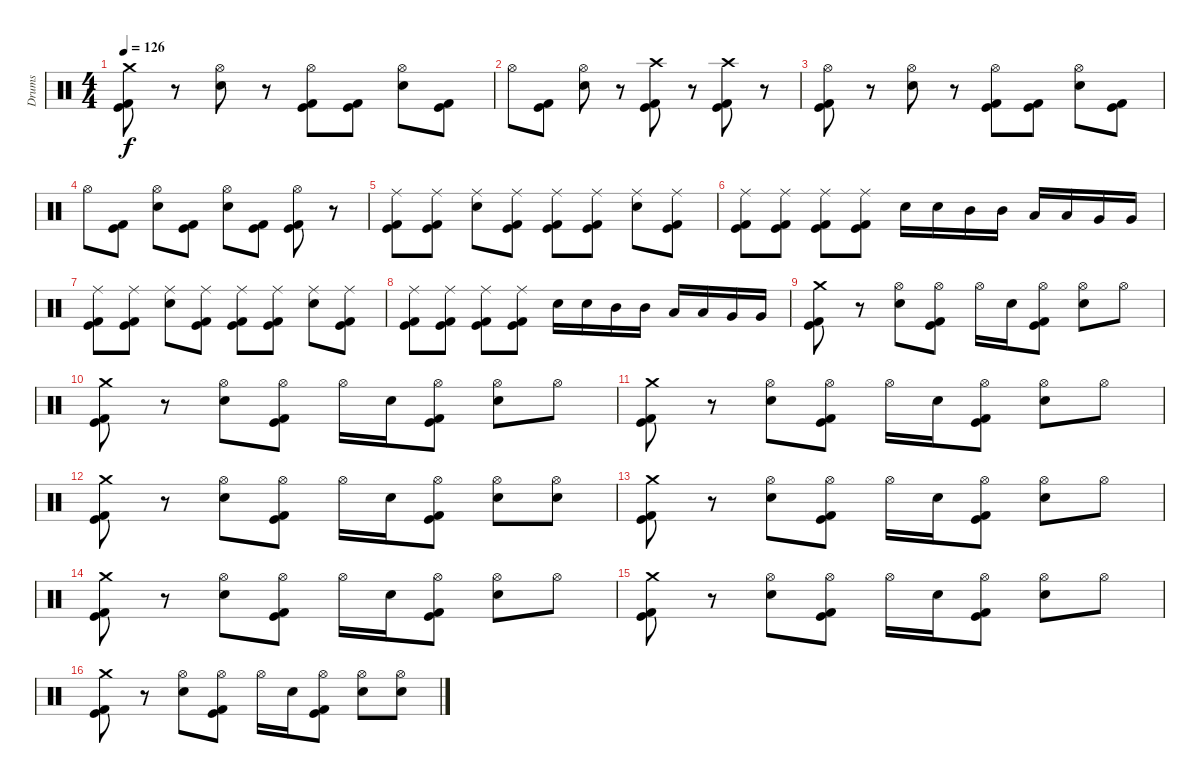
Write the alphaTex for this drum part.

\track ("Drums" "Drums") {instrument percussion}
\staff {score}
\articulation defaults
\ts (4 4)
\tempo 126
\clef neutral
\ks c
("Crash medium (hit)" "Kick (hit) 2" "Kick (hit)").8{dy f} r.8 ("Hi-Hat (open)" "Snare (hit) 2").8 r.8 ("Hi-Hat (open)" "Kick (hit) 2" "Kick (hit)").8 ("Kick (hit) 2" "Kick (hit)").8 ("Hi-Hat (open)" "Snare (hit) 2").8 ("Kick (hit) 2" "Kick (hit)").8 |
"Hi-Hat (open)".8 ("Kick (hit) 2" "Kick (hit)").8 ("Hi-Hat (open)" "Snare (hit) 2").8 r.8 ("Crash high (hit)" "Kick (hit) 2" "Kick (hit)").8 r.8 ("Crash high (hit)" "Kick (hit) 2" "Kick (hit)").8 r.8 |
("Hi-Hat (open)" "Kick (hit) 2" "Kick (hit)").8 r.8 ("Hi-Hat (open)" "Snare (hit) 2").8 r.8 ("Hi-Hat (open)" "Kick (hit) 2" "Kick (hit)").8 ("Kick (hit) 2" "Kick (hit)").8 ("Hi-Hat (open)" "Snare (hit) 2").8 ("Kick (hit) 2" "Kick (hit)").8 |
"Hi-Hat (open)".8 ("Kick (hit) 2" "Kick (hit)").8 ("Hi-Hat (open)" "Snare (hit) 2").8 ("Kick (hit) 2" "Kick (hit)").8 ("Hi-Hat (open)" "Snare (hit) 2").8 ("Kick (hit) 2" "Kick (hit)").8 ("Hi-Hat (open)" "Kick (hit) 2" "Kick (hit)").8 r.8 |
("Ride (middle)" "Kick (hit) 2" "Kick (hit)").8 ("Ride (middle)" "Kick (hit) 2" "Kick (hit)").8 ("Ride (middle)" "Snare (hit) 2").8 ("Ride (middle)" "Kick (hit) 2" "Kick (hit)").8 ("Ride (middle)" "Kick (hit) 2" "Kick (hit)").8 ("Ride (middle)" "Kick (hit) 2" "Kick (hit)").8 ("Ride (middle)" "Snare (hit) 2").8 ("Ride (middle)" "Kick (hit) 2" "Kick (hit)").8 |
("Ride (middle)" "Kick (hit) 2" "Kick (hit)").8 ("Ride (middle)" "Kick (hit) 2" "Kick (hit)").8 ("Ride (middle)" "Kick (hit) 2" "Kick (hit)").8 ("Ride (middle)" "Kick (hit) 2" "Kick (hit)").8 "Snare (hit) 2".16 "Snare (hit) 2".16 "Mid Tom (hit)".16 "Mid Tom (hit)".16 "Low Tom (hit)".16 "Low Tom (hit)".16 "Very Low Tom (hit)".16 "Very Low Tom (hit)".16 |
("Ride (middle)" "Kick (hit) 2" "Kick (hit)").8 ("Ride (middle)" "Kick (hit) 2" "Kick (hit)").8 ("Ride (middle)" "Snare (hit) 2").8 ("Ride (middle)" "Kick (hit) 2" "Kick (hit)").8 ("Ride (middle)" "Kick (hit) 2" "Kick (hit)").8 ("Ride (middle)" "Kick (hit) 2" "Kick (hit)").8 ("Ride (middle)" "Snare (hit) 2").8 ("Ride (middle)" "Kick (hit) 2" "Kick (hit)").8 |
("Ride (middle)" "Kick (hit) 2" "Kick (hit)").8 ("Ride (middle)" "Kick (hit) 2" "Kick (hit)").8 ("Ride (middle)" "Kick (hit) 2" "Kick (hit)").8 ("Ride (middle)" "Kick (hit) 2" "Kick (hit)").8 "Snare (hit) 2".16 "Snare (hit) 2".16 "Mid Tom (hit)".16 "Mid Tom (hit)".16 "Low Tom (hit)".16 "Low Tom (hit)".16 "Very Low Tom (hit)".16 "Very Low Tom (hit)".16 |
("Crash medium (hit)" "Kick (hit) 2" "Kick (hit)").8 r.8 ("Hi-Hat (open)" "Snare (hit) 2").8 ("Hi-Hat (open)" "Kick (hit) 2" "Kick (hit)").8 "Hi-Hat (open)".16 "Snare (hit) 2".16 ("Hi-Hat (open)" "Kick (hit) 2" "Kick (hit)").8 ("Hi-Hat (open)" "Snare (hit) 2").8 "Hi-Hat (open)".8 |
("Crash medium (hit)" "Kick (hit) 2" "Kick (hit)").8 r.8 ("Hi-Hat (open)" "Snare (hit) 2").8 ("Hi-Hat (open)" "Kick (hit) 2" "Kick (hit)").8 "Hi-Hat (open)".16 "Snare (hit) 2".16 ("Hi-Hat (open)" "Kick (hit) 2" "Kick (hit)").8 ("Hi-Hat (open)" "Snare (hit) 2").8 "Hi-Hat (open)".8 |
("Crash medium (hit)" "Kick (hit) 2" "Kick (hit)").8 r.8 ("Hi-Hat (open)" "Snare (hit) 2").8 ("Hi-Hat (open)" "Kick (hit) 2" "Kick (hit)").8 "Hi-Hat (open)".16 "Snare (hit) 2".16 ("Hi-Hat (open)" "Kick (hit) 2" "Kick (hit)").8 ("Hi-Hat (open)" "Snare (hit) 2").8 "Hi-Hat (open)".8 |
("Crash medium (hit)" "Kick (hit) 2" "Kick (hit)").8 r.8 ("Hi-Hat (open)" "Snare (hit) 2").8 ("Hi-Hat (open)" "Kick (hit) 2" "Kick (hit)").8 "Hi-Hat (open)".16 "Snare (hit) 2".16 ("Hi-Hat (open)" "Kick (hit) 2" "Kick (hit)").8 ("Hi-Hat (open)" "Snare (hit) 2").8 ("Hi-Hat (open)" "Snare (hit) 2").8 |
("Crash medium (hit)" "Kick (hit) 2" "Kick (hit)").8 r.8 ("Hi-Hat (open)" "Snare (hit) 2").8 ("Hi-Hat (open)" "Kick (hit) 2" "Kick (hit)").8 "Hi-Hat (open)".16 "Snare (hit) 2".16 ("Hi-Hat (open)" "Kick (hit) 2" "Kick (hit)").8 ("Hi-Hat (open)" "Snare (hit) 2").8 "Hi-Hat (open)".8 |
("Crash medium (hit)" "Kick (hit) 2" "Kick (hit)").8 r.8 ("Hi-Hat (open)" "Snare (hit) 2").8 ("Hi-Hat (open)" "Kick (hit) 2" "Kick (hit)").8 "Hi-Hat (open)".16 "Snare (hit) 2".16 ("Hi-Hat (open)" "Kick (hit) 2" "Kick (hit)").8 ("Hi-Hat (open)" "Snare (hit) 2").8 "Hi-Hat (open)".8 |
("Crash medium (hit)" "Kick (hit) 2" "Kick (hit)").8 r.8 ("Hi-Hat (open)" "Snare (hit) 2").8 ("Hi-Hat (open)" "Kick (hit) 2" "Kick (hit)").8 "Hi-Hat (open)".16 "Snare (hit) 2".16 ("Hi-Hat (open)" "Kick (hit) 2" "Kick (hit)").8 ("Hi-Hat (open)" "Snare (hit) 2").8 "Hi-Hat (open)".8 |
("Crash medium (hit)" "Kick (hit) 2" "Kick (hit)").8 r.8 ("Hi-Hat (open)" "Snare (hit) 2").8 ("Hi-Hat (open)" "Kick (hit) 2" "Kick (hit)").8 "Hi-Hat (open)".16 "Snare (hit) 2".16 ("Hi-Hat (open)" "Kick (hit) 2" "Kick (hit)").8 ("Hi-Hat (open)" "Snare (hit) 2").8 ("Hi-Hat (open)" "Snare (hit) 2").8
